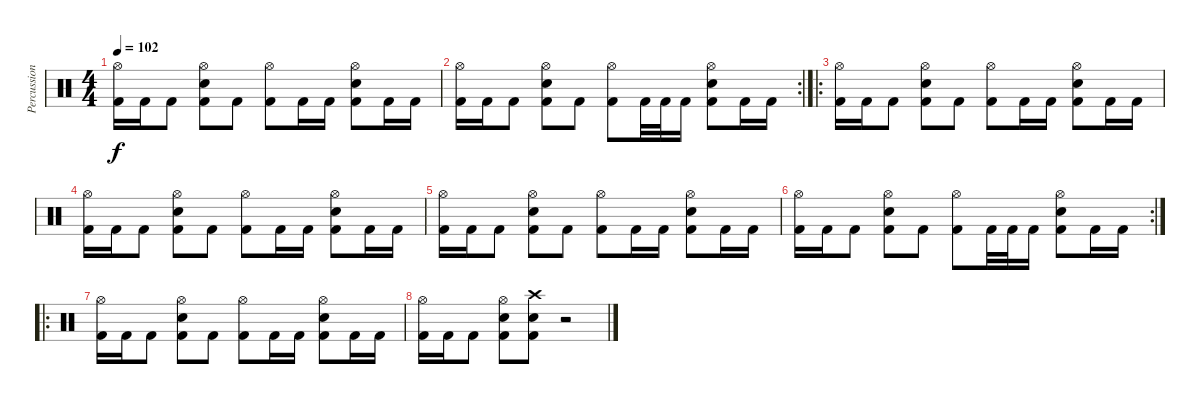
\track ("Percussion" "Percussion") {instrument percussion}
\staff {score}
\articulation defaults
\ts (4 4)
\tempo 102
\clef neutral
\ks c
("Hi-Hat (open)" "Kick (hit) 2").16{dy f} "Kick (hit) 2".16 "Kick (hit) 2".8 ("Hi-Hat (open)" "Snare (hit) 2" "Kick (hit) 2").8 "Kick (hit) 2".8 ("Hi-Hat (open)" "Kick (hit) 2").8 "Kick (hit) 2".16 "Kick (hit) 2".16 ("Hi-Hat (open)" "Snare (hit) 2" "Kick (hit) 2").8 "Kick (hit) 2".16 "Kick (hit) 2".16 |
\rc 2
("Hi-Hat (open)" "Kick (hit) 2").16 "Kick (hit) 2".16 "Kick (hit) 2".8 ("Hi-Hat (open)" "Snare (hit) 2" "Kick (hit) 2").8 "Kick (hit) 2".8 ("Hi-Hat (open)" "Kick (hit) 2").8 "Kick (hit) 2".32 "Kick (hit) 2".32 "Kick (hit) 2".16 ("Hi-Hat (open)" "Snare (hit) 2" "Kick (hit) 2").8 "Kick (hit) 2".16 "Kick (hit) 2".16 |
\ro
("Hi-Hat (open)" "Kick (hit) 2").16 "Kick (hit) 2".16 "Kick (hit) 2".8 ("Hi-Hat (open)" "Snare (hit) 2" "Kick (hit) 2").8 "Kick (hit) 2".8 ("Hi-Hat (open)" "Kick (hit) 2").8 "Kick (hit) 2".16 "Kick (hit) 2".16 ("Hi-Hat (open)" "Snare (hit) 2" "Kick (hit) 2").8 "Kick (hit) 2".16 "Kick (hit) 2".16 |
("Hi-Hat (open)" "Kick (hit) 2").16 "Kick (hit) 2".16 "Kick (hit) 2".8 ("Hi-Hat (open)" "Snare (hit) 2" "Kick (hit) 2").8 "Kick (hit) 2".8 ("Hi-Hat (open)" "Kick (hit) 2").8 "Kick (hit) 2".16 "Kick (hit) 2".16 ("Hi-Hat (open)" "Snare (hit) 2" "Kick (hit) 2").8 "Kick (hit) 2".16 "Kick (hit) 2".16 |
("Hi-Hat (open)" "Kick (hit) 2").16 "Kick (hit) 2".16 "Kick (hit) 2".8 ("Hi-Hat (open)" "Snare (hit) 2" "Kick (hit) 2").8 "Kick (hit) 2".8 ("Hi-Hat (open)" "Kick (hit) 2").8 "Kick (hit) 2".16 "Kick (hit) 2".16 ("Hi-Hat (open)" "Snare (hit) 2" "Kick (hit) 2").8 "Kick (hit) 2".16 "Kick (hit) 2".16 |
\rc 2
("Hi-Hat (open)" "Kick (hit) 2").16 "Kick (hit) 2".16 "Kick (hit) 2".8 ("Hi-Hat (open)" "Snare (hit) 2" "Kick (hit) 2").8 "Kick (hit) 2".8 ("Hi-Hat (open)" "Kick (hit) 2").8 "Kick (hit) 2".32 "Kick (hit) 2".32 "Kick (hit) 2".16 ("Hi-Hat (open)" "Snare (hit) 2" "Kick (hit) 2").8 "Kick (hit) 2".16 "Kick (hit) 2".16 |
\ro
("Hi-Hat (open)" "Kick (hit) 2").16 "Kick (hit) 2".16 "Kick (hit) 2".8 ("Hi-Hat (open)" "Snare (hit) 2" "Kick (hit) 2").8 "Kick (hit) 2".8 ("Hi-Hat (open)" "Kick (hit) 2").8 "Kick (hit) 2".16 "Kick (hit) 2".16 ("Hi-Hat (open)" "Snare (hit) 2" "Kick (hit) 2").8 "Kick (hit) 2".16 "Kick (hit) 2".16 |
("Hi-Hat (open)" "Kick (hit) 2").16 "Kick (hit) 2".16 "Kick (hit) 2".8 ("Hi-Hat (open)" "Snare (hit) 2" "Kick (hit) 2").8 ("Crash high (hit)" "Snare (hit) 2" "Kick (hit) 2").8 r.2
